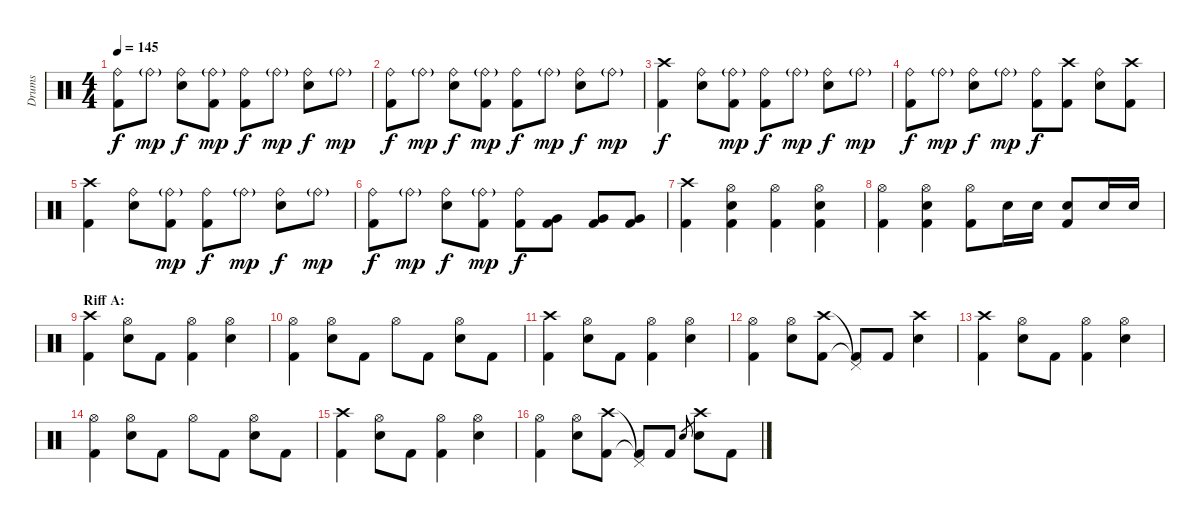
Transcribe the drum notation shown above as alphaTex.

\track ("Drums" "Drums") {instrument percussion}
\staff {score}
\articulation defaults
\ts (4 4)
\tempo 145
\clef neutral
\ks c
("Ride (bell)" "Kick (hit) 2").8{dy f} "Ride (bell)"{g}.8{dy mp} ("Ride (bell)" "Electric Snare (hit)").8{dy f} ("Ride (bell)"{g} "Kick (hit) 2").8{dy mp} ("Ride (bell)" "Kick (hit) 2").8{dy f} "Ride (bell)"{g}.8{dy mp} ("Ride (bell)" "Electric Snare (hit)").8{dy f} "Ride (bell)"{g}.8{dy mp} |
("Ride (bell)" "Kick (hit) 2").8{dy f} "Ride (bell)"{g}.8{dy mp} ("Ride (bell)" "Electric Snare (hit)").8{dy f} ("Ride (bell)"{g} "Kick (hit) 2").8{dy mp} ("Ride (bell)" "Kick (hit) 2").8{dy f} "Ride (bell)"{g}.8{dy mp} ("Ride (bell)" "Electric Snare (hit)").8{dy f} "Ride (bell)"{g}.8{dy mp} |
("Crash high (hit)" "Kick (hit) 2").4{dy f} ("Ride (bell)" "Electric Snare (hit)").8 ("Ride (bell)"{g} "Kick (hit) 2").8{dy mp} ("Ride (bell)" "Kick (hit) 2").8{dy f} "Ride (bell)"{g}.8{dy mp} ("Ride (bell)" "Electric Snare (hit)").8{dy f} "Ride (bell)"{g}.8{dy mp} |
("Ride (bell)" "Kick (hit) 2").8{dy f} "Ride (bell)"{g}.8{dy mp} ("Ride (bell)" "Electric Snare (hit)").8{dy f} "Ride (bell)"{g}.8{dy mp} ("Ride (bell)" "Kick (hit) 2").8{dy f} ("Crash high (hit)" "Kick (hit) 2").8 ("Ride (bell)" "Electric Snare (hit)").8 ("Crash high (hit)" "Kick (hit) 2").8 |
("Crash high (hit)" "Kick (hit) 2").4 ("Ride (bell)" "Electric Snare (hit)").8 ("Ride (bell)"{g} "Kick (hit) 2").8{dy mp} ("Ride (bell)" "Kick (hit) 2").8{dy f} "Ride (bell)"{g}.8{dy mp} ("Ride (bell)" "Electric Snare (hit)").8{dy f} "Ride (bell)"{g}.8{dy mp} |
("Ride (bell)" "Kick (hit) 2").8{dy f} "Ride (bell)"{g}.8{dy mp} ("Ride (bell)" "Electric Snare (hit)").8{dy f} ("Ride (bell)"{g} "Kick (hit) 2").8{dy mp} ("Ride (bell)" "Kick (hit) 2").8{dy f} ("Very Low Tom (hit)" "Kick (hit) 2").8 ("Very Low Tom (hit)" "Kick (hit) 2").8 ("Very Low Tom (hit)" "Kick (hit) 2").8 |
("Crash high (hit)" "Kick (hit) 2").4 ("Hi-Hat (open)" "Electric Snare (hit)" "Kick (hit) 2").4 ("Hi-Hat (open)" "Kick (hit) 2").4 ("Hi-Hat (open)" "Electric Snare (hit)" "Kick (hit) 2").4 |
("Hi-Hat (open)" "Kick (hit) 2").4 ("Hi-Hat (open)" "Electric Snare (hit)" "Kick (hit) 2").4 ("Hi-Hat (open)" "Kick (hit) 2").8 "Electric Snare (hit)".16 "Electric Snare (hit)".16 ("Electric Snare (hit)" "Kick (hit) 2").8 "Electric Snare (hit)".16 "Electric Snare (hit)".16 |
\section ("" "Riff A:")
("Crash high (hit)" "Kick (hit) 2").4 ("Hi-Hat (open)" "Electric Snare (hit)").8 "Kick (hit) 2".8 ("Hi-Hat (open)" "Kick (hit) 2").4 ("Hi-Hat (open)" "Electric Snare (hit)").4 |
("Hi-Hat (open)" "Kick (hit) 2").4 ("Hi-Hat (open)" "Electric Snare (hit)").8 "Kick (hit) 2".8 "Hi-Hat (open)".8 "Kick (hit) 2".8 ("Hi-Hat (open)" "Electric Snare (hit)").8 "Kick (hit) 2".8 |
("Crash high (hit)" "Kick (hit) 2").4 ("Hi-Hat (open)" "Electric Snare (hit)").8 "Kick (hit) 2".8 ("Hi-Hat (open)" "Kick (hit) 2").4 ("Hi-Hat (open)" "Electric Snare (hit)").4 |
("Hi-Hat (open)" "Kick (hit) 2").4 ("Hi-Hat (open)" "Electric Snare (hit)").8 ("Crash high (hit)" "Kick (hit) 2").8 ("Pedal Hi-Hat (hit)"{t} "Kick (hit) 2"{t}).8 "Kick (hit) 2".8 ("Crash high (hit)" "Electric Snare (hit)").4 |
("Crash high (hit)" "Kick (hit) 2").4 ("Hi-Hat (open)" "Electric Snare (hit)").8 "Kick (hit) 2".8 ("Hi-Hat (open)" "Kick (hit) 2").4 ("Hi-Hat (open)" "Electric Snare (hit)").4 |
("Hi-Hat (open)" "Kick (hit) 2").4 ("Hi-Hat (open)" "Electric Snare (hit)").8 "Kick (hit) 2".8 "Hi-Hat (open)".8 "Kick (hit) 2".8 ("Hi-Hat (open)" "Electric Snare (hit)").8 "Kick (hit) 2".8 |
("Crash high (hit)" "Kick (hit) 2").4 ("Hi-Hat (open)" "Electric Snare (hit)").8 "Kick (hit) 2".8 ("Hi-Hat (open)" "Kick (hit) 2").4 ("Hi-Hat (open)" "Electric Snare (hit)").4 |
("Hi-Hat (open)" "Kick (hit) 2").4 ("Hi-Hat (open)" "Electric Snare (hit)").8 ("Crash high (hit)" "Kick (hit) 2").8 ("Pedal Hi-Hat (hit)"{t} "Kick (hit) 2"{t}).8 "Kick (hit) 2".8 "Electric Snare (hit)".8{gr} ("Crash high (hit)" "Electric Snare (hit)").8 "Kick (hit) 2".8
